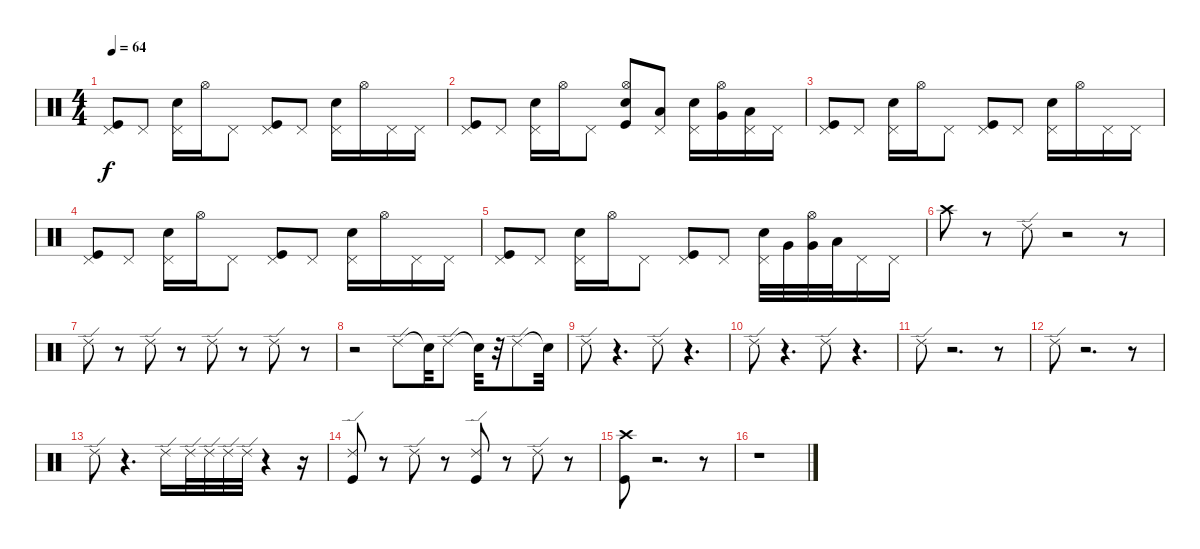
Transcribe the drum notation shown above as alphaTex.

\track "" {instrument percussion}
\staff {score}
\articulation defaults
\ts (4 4)
\tempo 64
\clef neutral
\ks c
("Kick (hit)" "Pedal Hi-Hat (hit)").8{dy f} "Pedal Hi-Hat (hit)".8 ("Snare (hit) 2" "Pedal Hi-Hat (hit)").16 "Hi-Hat (open)".16 "Pedal Hi-Hat (hit)".8 ("Kick (hit)" "Pedal Hi-Hat (hit)").8 "Pedal Hi-Hat (hit)".8 ("Snare (hit) 2" "Pedal Hi-Hat (hit)").16 "Hi-Hat (open)".16 "Pedal Hi-Hat (hit)".16 "Pedal Hi-Hat (hit)".16 |
("Kick (hit)" "Pedal Hi-Hat (hit)").8 "Pedal Hi-Hat (hit)".8 ("Snare (hit) 2" "Pedal Hi-Hat (hit)").16 "Hi-Hat (open)".16 "Pedal Hi-Hat (hit)".8 ("Hi-Hat (open)" "Electric Snare (hit)" "Kick (hit)").8 ("Low Floor Tom (hit)" "Pedal Hi-Hat (hit)").8 ("Snare (hit) 2" "Pedal Hi-Hat (hit)").16 ("Very Low Tom (hit)" "Hi-Hat (open)").16 ("Low Tom (hit)" "Pedal Hi-Hat (hit)").16 "Pedal Hi-Hat (hit)".16 |
("Kick (hit)" "Pedal Hi-Hat (hit)").8 "Pedal Hi-Hat (hit)".8 ("Snare (hit) 2" "Pedal Hi-Hat (hit)").16 "Hi-Hat (open)".16 "Pedal Hi-Hat (hit)".8 ("Kick (hit)" "Pedal Hi-Hat (hit)").8 "Pedal Hi-Hat (hit)".8 ("Snare (hit) 2" "Pedal Hi-Hat (hit)").16 "Hi-Hat (open)".16 "Pedal Hi-Hat (hit)".16 "Pedal Hi-Hat (hit)".16 |
("Kick (hit)" "Pedal Hi-Hat (hit)").8 "Pedal Hi-Hat (hit)".8 ("Snare (hit) 2" "Pedal Hi-Hat (hit)").16 "Hi-Hat (open)".16 "Pedal Hi-Hat (hit)".8 ("Kick (hit)" "Pedal Hi-Hat (hit)").8 "Pedal Hi-Hat (hit)".8 ("Snare (hit) 2" "Pedal Hi-Hat (hit)").16 "Hi-Hat (open)".16 "Pedal Hi-Hat (hit)".16 "Pedal Hi-Hat (hit)".16 |
("Kick (hit)" "Pedal Hi-Hat (hit)").8 "Pedal Hi-Hat (hit)".8 ("Snare (hit) 2" "Pedal Hi-Hat (hit)").16 "Hi-Hat (open)".16 "Pedal Hi-Hat (hit)".8 ("Kick (hit)" "Pedal Hi-Hat (hit)").8 "Pedal Hi-Hat (hit)".8 ("Snare (hit) 2" "Pedal Hi-Hat (hit)").32 "Very Low Tom (hit)".32 ("Very Low Tom (hit)" "Hi-Hat (open)").32 "Low Floor Tom (hit)".32 "Pedal Hi-Hat (hit)".16 "Pedal Hi-Hat (hit)".16 |
"Crash high (hit)".8 r.8 "Ride (edge) 2".8 r.2 r.8 |
"Ride (edge) 2".8 r.8 "Ride (edge) 2".8 r.8 "Ride (edge) 2".8 r.8 "Ride (edge) 2".8 r.8 |
r.2 "Ride (edge) 2".8 "Snare (hit)"{t}.32 "Ride (edge) 2".8 "Snare (hit)"{t}.32 r.32 "Ride (edge) 2".8 "Snare (hit)"{t}.32 |
"Ride (edge) 2".8 r.4{d} "Ride (edge) 2".8 r.4{d} |
"Ride (edge) 2".8 r.4{d} "Ride (edge) 2".8 r.4{d} |
"Ride (edge) 2".8 r.2{d} r.8 |
"Ride (edge) 2".8 r.2{d} r.8 |
"Ride (edge) 2".8 r.4{d} "Ride (edge) 2".16 "Ride (edge) 2".32 "Ride (edge) 2".32 "Ride (edge) 2".32 "Ride (edge) 2".32 r.4 r.16 |
("Ride (edge) 2" "Kick (hit)").8 r.8 "Ride (edge) 2".8 r.8 ("Ride (edge) 2" "Kick (hit)").8 r.8 "Ride (edge) 2".8 r.8 |
("Crash high (hit)" "Kick (hit)").8 r.2{d} r.8 |
r.1
